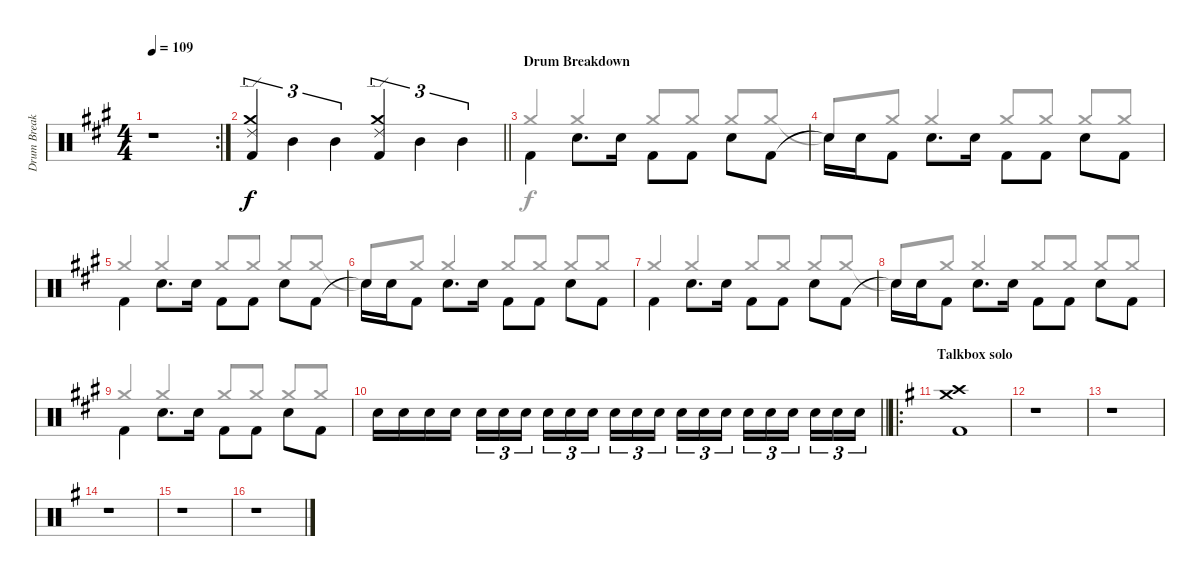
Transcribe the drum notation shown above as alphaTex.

\track ("Drum Breakdown" "Drum Break") {instrument percussion}
\staff {score}
\articulation defaults
\voice
\rc 2
\ts (4 4)
\tempo 109
\clef neutral
\ks a
r.1{dy f} |
\barLineRight lightlight
("Ride (edge) 2" "Crash medium (hit)" "Kick (hit) 2").4{tu (3 2)} "Mid Tom (hit)".4{tu (3 2)} "Mid Tom (hit)".4{tu (3 2)} ("Ride (edge) 2" "Crash medium (hit)" "Kick (hit) 2").4{tu (3 2)} "Mid Tom (hit)".4{tu (3 2)} "Mid Tom (hit)".4{tu (3 2)} |
\section ("" "Drum Breakdown")
"Kick (hit) 2".4{beam Down} "Electric Snare (hit)".8{d beam Down} "Electric Snare (hit)".16{beam Down} "Kick (hit) 2".8{beam Down} "Kick (hit) 2".8{beam Down} "Electric Snare (hit)".8{beam Down} "Kick (hit) 2".8{beam Down} |
"Snare (hit)"{t}.16{beam Down} "Electric Snare (hit)".16{beam Down} "Kick (hit) 2".8{beam Down} "Electric Snare (hit)".8{d beam Down} "Electric Snare (hit)".16{beam Down} "Kick (hit) 2".8{beam Down} "Kick (hit) 2".8{beam Down} "Electric Snare (hit)".8{beam Down} "Kick (hit) 2".8{beam Down} |
"Kick (hit) 2".4{beam Down} "Electric Snare (hit)".8{d beam Down} "Electric Snare (hit)".16{beam Down} "Kick (hit) 2".8{beam Down} "Kick (hit) 2".8{beam Down} "Electric Snare (hit)".8{beam Down} "Kick (hit) 2".8{beam Down} |
"Snare (hit)"{t}.16{beam Down} "Electric Snare (hit)".16{beam Down} "Kick (hit) 2".8{beam Down} "Electric Snare (hit)".8{d beam Down} "Electric Snare (hit)".16{beam Down} "Kick (hit) 2".8{beam Down} "Kick (hit) 2".8{beam Down} "Electric Snare (hit)".8{beam Down} "Kick (hit) 2".8{beam Down} |
"Kick (hit) 2".4{beam Down} "Electric Snare (hit)".8{d beam Down} "Electric Snare (hit)".16{beam Down} "Kick (hit) 2".8{beam Down} "Kick (hit) 2".8{beam Down} "Electric Snare (hit)".8{beam Down} "Kick (hit) 2".8{beam Down} |
"Snare (hit)"{t}.16{beam Down} "Electric Snare (hit)".16{beam Down} "Kick (hit) 2".8{beam Down} "Electric Snare (hit)".8{d beam Down} "Electric Snare (hit)".16{beam Down} "Kick (hit) 2".8{beam Down} "Kick (hit) 2".8{beam Down} "Electric Snare (hit)".8{beam Down} "Kick (hit) 2".8{beam Down} |
"Kick (hit) 2".4{beam Down} "Electric Snare (hit)".8{d beam Down} "Electric Snare (hit)".16{beam Down} "Kick (hit) 2".8{beam Down} "Kick (hit) 2".8{beam Down} "Electric Snare (hit)".8{beam Down} "Kick (hit) 2".8{beam Down} |
\barLineRight lightlight "Electric Snare (hit)".16 "Electric Snare (hit)".16 "Electric Snare (hit)".16 "Electric Snare (hit)".16 "Electric Snare (hit)".16{tu (3 2)} "Electric Snare (hit)".16{tu (3 2)} "Electric Snare (hit)".16{tu (3 2) beam splitsecondary} "Electric Snare (hit)".16{tu (3 2)} "Electric Snare (hit)".16{tu (3 2)} "Electric Snare (hit)".16{tu (3 2)} "Electric Snare (hit)".16{tu (3 2)} "Electric Snare (hit)".16{tu (3 2)} "Electric Snare (hit)".16{tu (3 2) beam splitsecondary} "Electric Snare (hit)".16{tu (3 2)} "Electric Snare (hit)".16{tu (3 2)} "Electric Snare (hit)".16{tu (3 2)} "Electric Snare (hit)".16{tu (3 2)} "Electric Snare (hit)".16{tu (3 2)} "Electric Snare (hit)".16{tu (3 2) beam splitsecondary} "Electric Snare (hit)".16{tu (3 2)} "Electric Snare (hit)".16{tu (3 2)} "Electric Snare (hit)".16{tu (3 2)}
|
\ro
\section ("" "Talkbox solo")
\ks g
("Crash medium (hit)" "Crash high (hit)" "Kick (hit) 2").1 |
r.1 |
r.1 |
r.1 |
r.1 |
r.1
\voice
\clef neutral
\ottava regular
\simile none
\ks a
|
\barLineRight lightlight
|
"Crash medium (hit)".4{beam Up} "Crash medium (hit)".4{beam Up} "Crash medium (hit)".8{beam Up} "Crash medium (hit)".8{beam Up} "Crash medium (hit)".8{beam Up} "Crash medium (hit)".8{beam Up} |
"Snare (hit)"{t}.8{beam Up} "Crash medium (hit)".8{beam Up} "Crash medium (hit)".4{beam Up} "Crash medium (hit)".8{beam Up} "Crash medium (hit)".8{beam Up} "Crash medium (hit)".8{beam Up} "Crash medium (hit)".8{beam Up} |
"Crash medium (hit)".4{beam Up} "Crash medium (hit)".4{beam Up} "Crash medium (hit)".8{beam Up} "Crash medium (hit)".8{beam Up} "Crash medium (hit)".8{beam Up} "Crash medium (hit)".8{beam Up} |
"Snare (hit)"{t}.8{beam Up} "Crash medium (hit)".8{beam Up} "Crash medium (hit)".4{beam Up} "Crash medium (hit)".8{beam Up} "Crash medium (hit)".8{beam Up} "Crash medium (hit)".8{beam Up} "Crash medium (hit)".8{beam Up} |
"Crash medium (hit)".4{beam Up} "Crash medium (hit)".4{beam Up} "Crash medium (hit)".8{beam Up} "Crash medium (hit)".8{beam Up} "Crash medium (hit)".8{beam Up} "Crash medium (hit)".8{beam Up} |
"Snare (hit)"{t}.8{beam Up} "Crash medium (hit)".8{beam Up} "Crash medium (hit)".4{beam Up} "Crash medium (hit)".8{beam Up} "Crash medium (hit)".8{beam Up} "Crash medium (hit)".8{beam Up} "Crash medium (hit)".8{beam Up} |
"Crash medium (hit)".4{beam Up} "Crash medium (hit)".4{beam Up} "Crash medium (hit)".8{beam Up} "Crash medium (hit)".8{beam Up} "Crash medium (hit)".8{beam Up} "Crash medium (hit)".8{beam Up} |
\barLineRight lightlight
|
\ks g
|
|
|
|
|
